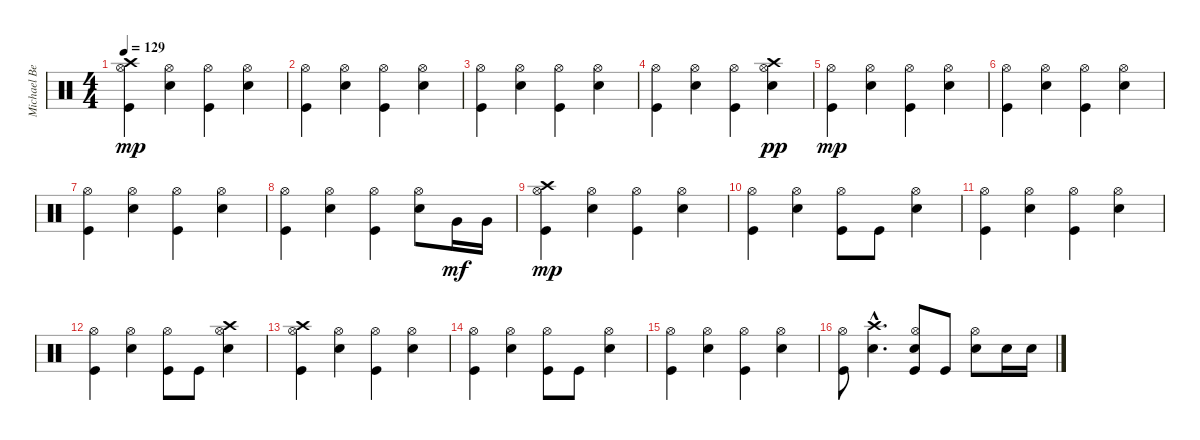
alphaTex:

\track ("Michael Beinham" "Michael Be") {instrument percussion}
\staff {score}
\articulation defaults
\ts (4 4)
\tempo 129
\clef neutral
\ks c
("Kick (hit)" "Hi-Hat (open)" "Crash high (hit)").4{dy mp} ("Snare (hit) 2" "Hi-Hat (open)").4 ("Kick (hit)" "Hi-Hat (open)").4 ("Snare (hit) 2" "Hi-Hat (open)").4 |
("Kick (hit)" "Hi-Hat (open)").4 ("Snare (hit) 2" "Hi-Hat (open)").4 ("Kick (hit)" "Hi-Hat (open)").4 ("Snare (hit) 2" "Hi-Hat (open)").4 |
("Kick (hit)" "Hi-Hat (open)").4 ("Snare (hit) 2" "Hi-Hat (open)").4 ("Kick (hit)" "Hi-Hat (open)").4 ("Snare (hit) 2" "Hi-Hat (open)").4 |
("Kick (hit)" "Hi-Hat (open)").4 ("Snare (hit) 2" "Hi-Hat (open)").4 ("Kick (hit)" "Hi-Hat (open)").4 ("Snare (hit) 2" "Hi-Hat (open)" "Crash high (hit)").4{dy pp} |
("Kick (hit)" "Hi-Hat (open)").4{dy mp} ("Snare (hit) 2" "Hi-Hat (open)").4 ("Kick (hit)" "Hi-Hat (open)").4 ("Snare (hit) 2" "Hi-Hat (open)").4 |
("Kick (hit)" "Hi-Hat (open)").4 ("Snare (hit) 2" "Hi-Hat (open)").4 ("Kick (hit)" "Hi-Hat (open)").4 ("Snare (hit) 2" "Hi-Hat (open)").4 |
("Kick (hit)" "Hi-Hat (open)").4 ("Snare (hit) 2" "Hi-Hat (open)").4 ("Kick (hit)" "Hi-Hat (open)").4 ("Snare (hit) 2" "Hi-Hat (open)").4 |
("Kick (hit)" "Hi-Hat (open)").4 ("Snare (hit) 2" "Hi-Hat (open)").4 ("Kick (hit)" "Hi-Hat (open)").4 ("Snare (hit) 2" "Hi-Hat (open)").8 "Very Low Tom (hit)".16{dy mf} "Very Low Tom (hit)".16 |
("Kick (hit)" "Hi-Hat (open)" "Crash high (hit)").4{dy mp} ("Snare (hit) 2" "Hi-Hat (open)").4 ("Kick (hit)" "Hi-Hat (open)").4 ("Snare (hit) 2" "Hi-Hat (open)").4 |
("Kick (hit)" "Hi-Hat (open)").4 ("Snare (hit) 2" "Hi-Hat (open)").4 ("Kick (hit)" "Hi-Hat (open)").8 "Kick (hit)".8 ("Snare (hit) 2" "Hi-Hat (open)").4 |
("Kick (hit)" "Hi-Hat (open)").4 ("Snare (hit) 2" "Hi-Hat (open)").4 ("Kick (hit)" "Hi-Hat (open)").4 ("Snare (hit) 2" "Hi-Hat (open)").4 |
("Kick (hit)" "Hi-Hat (open)").4 ("Snare (hit) 2" "Hi-Hat (open)").4 ("Kick (hit)" "Hi-Hat (open)").8 "Kick (hit)".8 ("Snare (hit) 2" "Hi-Hat (open)" "Crash high (hit)").4 |
("Kick (hit)" "Hi-Hat (open)" "Crash high (hit)").4 ("Snare (hit) 2" "Hi-Hat (open)").4 ("Kick (hit)" "Hi-Hat (open)").4 ("Snare (hit) 2" "Hi-Hat (open)").4 |
("Kick (hit)" "Hi-Hat (open)").4 ("Snare (hit) 2" "Hi-Hat (open)").4 ("Kick (hit)" "Hi-Hat (open)").8 "Kick (hit)".8 ("Snare (hit) 2" "Hi-Hat (open)").4 |
("Kick (hit)" "Hi-Hat (open)").4 ("Snare (hit) 2" "Hi-Hat (open)").4 ("Kick (hit)" "Hi-Hat (open)").4 ("Snare (hit) 2" "Hi-Hat (open)").4 |
("Kick (hit)" "Hi-Hat (open)").8 ("Snare (hit) 2"{hac} "Crash high (hit)").4{d} ("Kick (hit)" "Snare (hit) 2" "Hi-Hat (open)").8 "Kick (hit)".8 ("Snare (hit) 2" "Hi-Hat (open)").8 "Snare (hit) 2".16 "Snare (hit) 2".16
